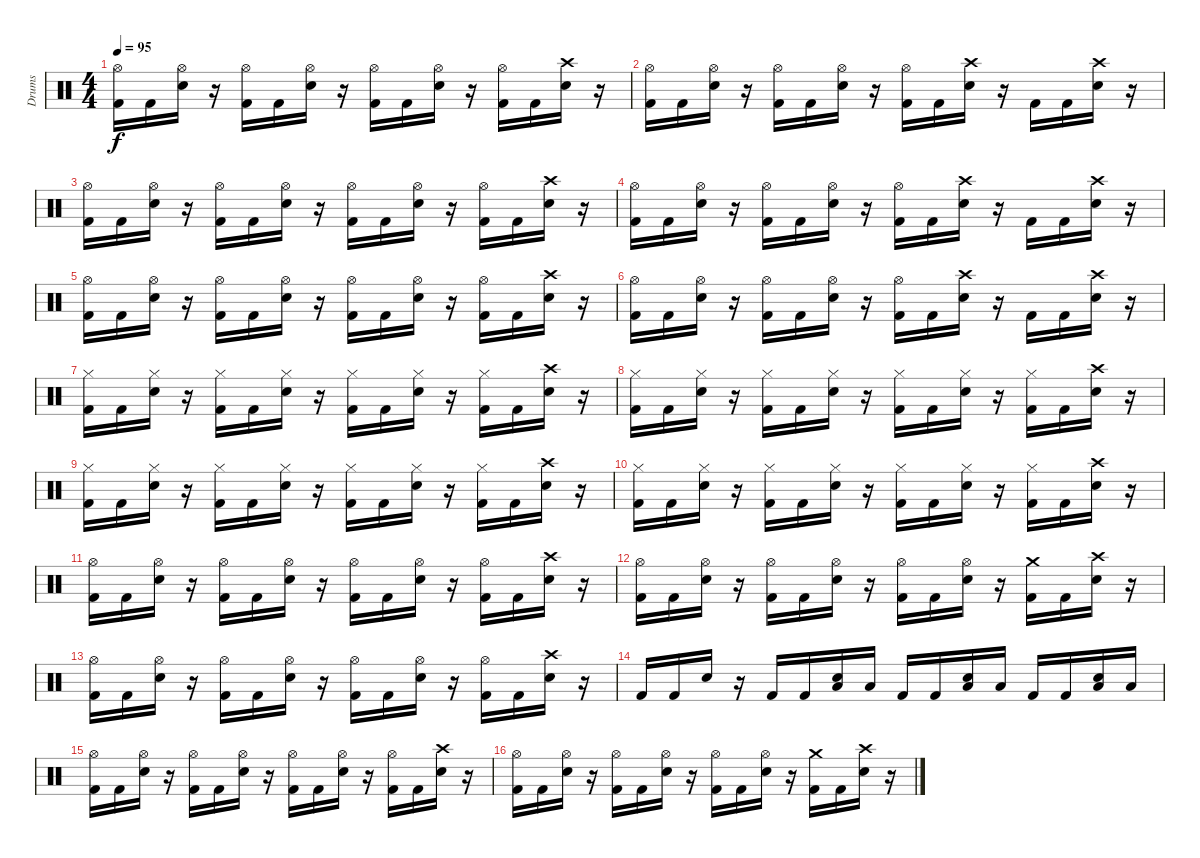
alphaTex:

\track ("Drums" "Drums") {instrument percussion}
\staff {score}
\articulation defaults
\ts (4 4)
\tempo 95
\clef neutral
\ks c
("Kick (hit) 2" "Hi-Hat (open)").16{dy f} "Kick (hit) 2".16 ("Snare (hit) 2" "Hi-Hat (open)").16 r.16 ("Kick (hit) 2" "Hi-Hat (open)").16 "Kick (hit) 2".16 ("Snare (hit) 2" "Hi-Hat (open)").16 r.16 ("Kick (hit) 2" "Hi-Hat (open)").16 "Kick (hit) 2".16 ("Snare (hit) 2" "Hi-Hat (open)").16 r.16 ("Kick (hit) 2" "Hi-Hat (open)").16 "Kick (hit) 2".16 ("Snare (hit) 2" "Crash high (hit)").16 r.16 |
("Kick (hit) 2" "Hi-Hat (open)").16 "Kick (hit) 2".16 ("Snare (hit) 2" "Hi-Hat (open)").16 r.16 ("Kick (hit) 2" "Hi-Hat (open)").16 "Kick (hit) 2".16 ("Snare (hit) 2" "Hi-Hat (open)").16 r.16 ("Kick (hit) 2" "Hi-Hat (open)").16 "Kick (hit) 2".16 ("Snare (hit) 2" "Crash high (hit)").16 r.16 "Kick (hit) 2".16 "Kick (hit) 2".16 ("Snare (hit) 2" "Crash high (hit)").16 r.16 |
("Kick (hit) 2" "Hi-Hat (open)").16 "Kick (hit) 2".16 ("Snare (hit) 2" "Hi-Hat (open)").16 r.16 ("Kick (hit) 2" "Hi-Hat (open)").16 "Kick (hit) 2".16 ("Snare (hit) 2" "Hi-Hat (open)").16 r.16 ("Kick (hit) 2" "Hi-Hat (open)").16 "Kick (hit) 2".16 ("Snare (hit) 2" "Hi-Hat (open)").16 r.16 ("Kick (hit) 2" "Hi-Hat (open)").16 "Kick (hit) 2".16 ("Snare (hit) 2" "Crash high (hit)").16 r.16 |
("Kick (hit) 2" "Hi-Hat (open)").16 "Kick (hit) 2".16 ("Snare (hit) 2" "Hi-Hat (open)").16 r.16 ("Kick (hit) 2" "Hi-Hat (open)").16 "Kick (hit) 2".16 ("Snare (hit) 2" "Hi-Hat (open)").16 r.16 ("Kick (hit) 2" "Hi-Hat (open)").16 "Kick (hit) 2".16 ("Snare (hit) 2" "Crash high (hit)").16 r.16 "Kick (hit) 2".16 "Kick (hit) 2".16 ("Snare (hit) 2" "Crash high (hit)").16 r.16 |
("Kick (hit) 2" "Hi-Hat (open)").16 "Kick (hit) 2".16 ("Snare (hit) 2" "Hi-Hat (open)").16 r.16 ("Kick (hit) 2" "Hi-Hat (open)").16 "Kick (hit) 2".16 ("Snare (hit) 2" "Hi-Hat (open)").16 r.16 ("Kick (hit) 2" "Hi-Hat (open)").16 "Kick (hit) 2".16 ("Snare (hit) 2" "Hi-Hat (open)").16 r.16 ("Kick (hit) 2" "Hi-Hat (open)").16 "Kick (hit) 2".16 ("Snare (hit) 2" "Crash high (hit)").16 r.16 |
("Kick (hit) 2" "Hi-Hat (open)").16 "Kick (hit) 2".16 ("Snare (hit) 2" "Hi-Hat (open)").16 r.16 ("Kick (hit) 2" "Hi-Hat (open)").16 "Kick (hit) 2".16 ("Snare (hit) 2" "Hi-Hat (open)").16 r.16 ("Kick (hit) 2" "Hi-Hat (open)").16 "Kick (hit) 2".16 ("Snare (hit) 2" "Crash high (hit)").16 r.16 "Kick (hit) 2".16 "Kick (hit) 2".16 ("Snare (hit) 2" "Crash high (hit)").16 r.16 |
("Kick (hit) 2" "Hi-Hat (closed)").16 "Kick (hit) 2".16 ("Snare (hit) 2" "Hi-Hat (closed)").16 r.16 ("Kick (hit) 2" "Hi-Hat (closed)").16 "Kick (hit) 2".16 ("Snare (hit) 2" "Hi-Hat (closed)").16 r.16 ("Kick (hit) 2" "Hi-Hat (closed)").16 "Kick (hit) 2".16 ("Snare (hit) 2" "Hi-Hat (closed)").16 r.16 ("Kick (hit) 2" "Hi-Hat (closed)").16 "Kick (hit) 2".16 ("Snare (hit) 2" "Crash high (hit)").16 r.16 |
("Kick (hit) 2" "Hi-Hat (closed)").16 "Kick (hit) 2".16 ("Snare (hit) 2" "Hi-Hat (closed)").16 r.16 ("Kick (hit) 2" "Hi-Hat (closed)").16 "Kick (hit) 2".16 ("Snare (hit) 2" "Hi-Hat (closed)").16 r.16 ("Kick (hit) 2" "Hi-Hat (closed)").16 "Kick (hit) 2".16 ("Snare (hit) 2" "Hi-Hat (closed)").16 r.16 ("Kick (hit) 2" "Hi-Hat (closed)").16 "Kick (hit) 2".16 ("Snare (hit) 2" "Crash high (hit)").16 r.16 |
("Kick (hit) 2" "Hi-Hat (closed)").16 "Kick (hit) 2".16 ("Snare (hit) 2" "Hi-Hat (closed)").16 r.16 ("Kick (hit) 2" "Hi-Hat (closed)").16 "Kick (hit) 2".16 ("Snare (hit) 2" "Hi-Hat (closed)").16 r.16 ("Kick (hit) 2" "Hi-Hat (closed)").16 "Kick (hit) 2".16 ("Snare (hit) 2" "Hi-Hat (closed)").16 r.16 ("Kick (hit) 2" "Hi-Hat (closed)").16 "Kick (hit) 2".16 ("Snare (hit) 2" "Crash high (hit)").16 r.16 |
("Kick (hit) 2" "Hi-Hat (closed)").16 "Kick (hit) 2".16 ("Snare (hit) 2" "Hi-Hat (closed)").16 r.16 ("Kick (hit) 2" "Hi-Hat (closed)").16 "Kick (hit) 2".16 ("Snare (hit) 2" "Hi-Hat (closed)").16 r.16 ("Kick (hit) 2" "Hi-Hat (closed)").16 "Kick (hit) 2".16 ("Snare (hit) 2" "Hi-Hat (closed)").16 r.16 ("Kick (hit) 2" "Hi-Hat (closed)").16 "Kick (hit) 2".16 ("Snare (hit) 2" "Crash high (hit)").16 r.16 |
("Kick (hit) 2" "Hi-Hat (open)").16 "Kick (hit) 2".16 ("Snare (hit) 2" "Hi-Hat (open)").16 r.16 ("Kick (hit) 2" "Hi-Hat (open)").16 "Kick (hit) 2".16 ("Snare (hit) 2" "Hi-Hat (open)").16 r.16 ("Kick (hit) 2" "Hi-Hat (open)").16 "Kick (hit) 2".16 ("Snare (hit) 2" "Hi-Hat (open)").16 r.16 ("Kick (hit) 2" "Hi-Hat (open)").16 "Kick (hit) 2".16 ("Snare (hit) 2" "Crash high (hit)").16 r.16 |
("Kick (hit) 2" "Hi-Hat (open)").16 "Kick (hit) 2".16 ("Snare (hit) 2" "Hi-Hat (open)").16 r.16 ("Kick (hit) 2" "Hi-Hat (open)").16 "Kick (hit) 2".16 ("Snare (hit) 2" "Hi-Hat (open)").16 r.16 ("Kick (hit) 2" "Hi-Hat (open)").16 "Kick (hit) 2".16 ("Snare (hit) 2" "Hi-Hat (open)").16 r.16 ("Kick (hit) 2" "Crash medium (hit)").16 "Kick (hit) 2".16 ("Snare (hit) 2" "Crash high (hit)").16 r.16 |
("Kick (hit) 2" "Hi-Hat (open)").16 "Kick (hit) 2".16 ("Snare (hit) 2" "Hi-Hat (open)").16 r.16 ("Kick (hit) 2" "Hi-Hat (open)").16 "Kick (hit) 2".16 ("Snare (hit) 2" "Hi-Hat (open)").16 r.16 ("Kick (hit) 2" "Hi-Hat (open)").16 "Kick (hit) 2".16 ("Snare (hit) 2" "Hi-Hat (open)").16 r.16 ("Kick (hit) 2" "Hi-Hat (open)").16 "Kick (hit) 2".16 ("Snare (hit) 2" "Crash high (hit)").16 r.16 |
"Kick (hit) 2".16 "Kick (hit) 2".16 "Snare (hit) 2".16 r.16 "Kick (hit) 2".16 "Kick (hit) 2".16 ("Snare (hit) 2" "Low Tom (hit)").16 "Low Tom (hit)".16 "Kick (hit) 2".16 "Kick (hit) 2".16 ("Snare (hit) 2" "Low Tom (hit)").16 "Low Tom (hit)".16 "Kick (hit) 2".16 "Kick (hit) 2".16 ("Snare (hit) 2" "Low Tom (hit)").16 "Low Tom (hit)".16 |
("Kick (hit) 2" "Hi-Hat (open)").16 "Kick (hit) 2".16 ("Snare (hit) 2" "Hi-Hat (open)").16 r.16 ("Kick (hit) 2" "Hi-Hat (open)").16 "Kick (hit) 2".16 ("Snare (hit) 2" "Hi-Hat (open)").16 r.16 ("Kick (hit) 2" "Hi-Hat (open)").16 "Kick (hit) 2".16 ("Snare (hit) 2" "Hi-Hat (open)").16 r.16 ("Kick (hit) 2" "Hi-Hat (open)").16 "Kick (hit) 2".16 ("Snare (hit) 2" "Crash high (hit)").16 r.16 |
("Kick (hit) 2" "Hi-Hat (open)").16 "Kick (hit) 2".16 ("Snare (hit) 2" "Hi-Hat (open)").16 r.16 ("Kick (hit) 2" "Hi-Hat (open)").16 "Kick (hit) 2".16 ("Snare (hit) 2" "Hi-Hat (open)").16 r.16 ("Kick (hit) 2" "Hi-Hat (open)").16 "Kick (hit) 2".16 ("Snare (hit) 2" "Hi-Hat (open)").16 r.16 ("Kick (hit) 2" "Crash medium (hit)").16 "Kick (hit) 2".16 ("Snare (hit) 2" "Crash high (hit)").16 r.16
